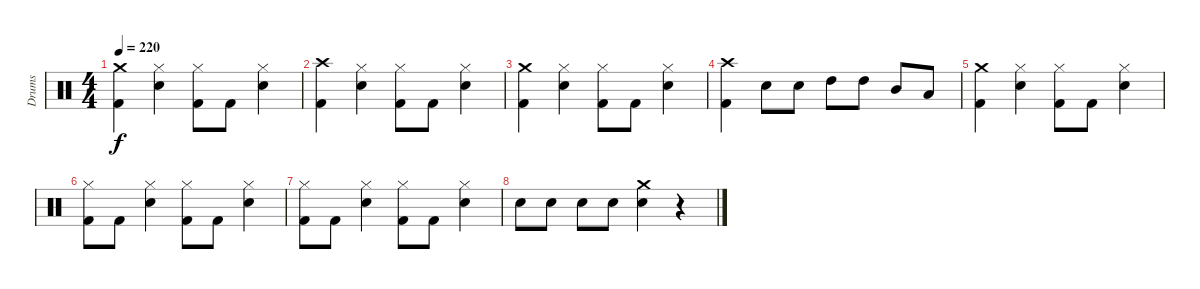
\track ("Drums" "Drums") {instrument percussion}
\staff {score}
\articulation defaults
\ts (4 4)
\tempo 220
\clef neutral
\ks c
("Crash medium (hit)" "Kick (hit) 2").4{dy f} ("Hi-Hat (closed)" "Electric Snare (hit)").4 ("Hi-Hat (closed)" "Kick (hit) 2").8 "Kick (hit) 2".8 ("Hi-Hat (closed)" "Electric Snare (hit)").4 |
("Crash high (hit)" "Kick (hit) 2").4 ("Hi-Hat (closed)" "Electric Snare (hit)").4 ("Hi-Hat (closed)" "Kick (hit) 2").8 "Kick (hit) 2".8 ("Hi-Hat (closed)" "Electric Snare (hit)").4 |
("Crash medium (hit)" "Kick (hit) 2").4 ("Hi-Hat (closed)" "Electric Snare (hit)").4 ("Hi-Hat (closed)" "Kick (hit) 2").8 "Kick (hit) 2".8 ("Hi-Hat (closed)" "Electric Snare (hit)").4 |
("Crash high (hit)" "Kick (hit) 2").4 "Electric Snare (hit)".8 "Electric Snare (hit)".8 "High Tom (hit)".8 "High Tom (hit)".8 "Mid Tom (hit)".8 "Low Tom (hit)".8 |
("Crash medium (hit)" "Kick (hit) 2").4 ("Hi-Hat (closed)" "Electric Snare (hit)").4 ("Hi-Hat (closed)" "Kick (hit) 2").8 "Kick (hit) 2".8 ("Hi-Hat (closed)" "Electric Snare (hit)").4 |
("Hi-Hat (closed)" "Kick (hit) 2").8 "Kick (hit) 2".8 ("Hi-Hat (closed)" "Electric Snare (hit)").4 ("Hi-Hat (closed)" "Kick (hit) 2").8 "Kick (hit) 2".8 ("Hi-Hat (closed)" "Electric Snare (hit)").4 |
("Hi-Hat (closed)" "Kick (hit) 2").8 "Kick (hit) 2".8 ("Hi-Hat (closed)" "Electric Snare (hit)").4 ("Hi-Hat (closed)" "Kick (hit) 2").8 "Kick (hit) 2".8 ("Hi-Hat (closed)" "Electric Snare (hit)").4 |
"Electric Snare (hit)".8 "Electric Snare (hit)".8 "Electric Snare (hit)".8 "Electric Snare (hit)".8 ("Crash medium (hit)" "Electric Snare (hit)").4 r.4
